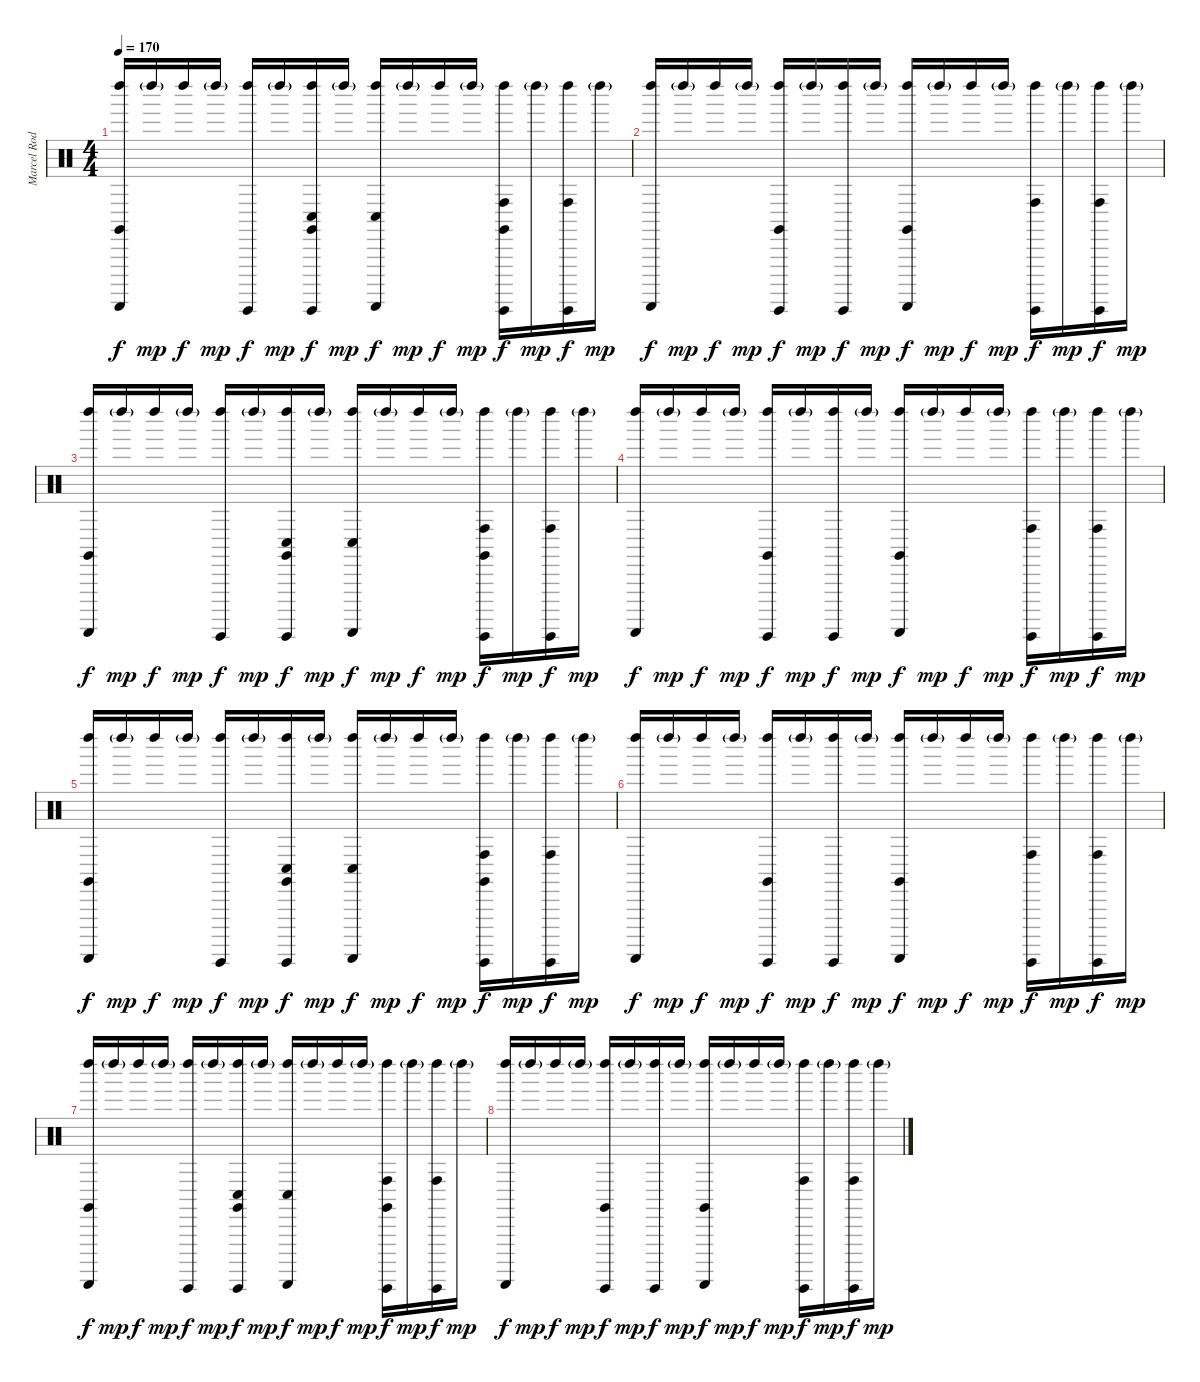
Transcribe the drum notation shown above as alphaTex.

\track ("Marcel Rodriguez-Lopez/Adrian Terrazas [" "Marcel Rod") {instrument percussion}
\staff {score}
\articulation defaults
\ts (4 4)
\tempo 170
\clef neutral
\ks c
("Guiro (scrap-return)" "Left Maraca (hit)" "Claves (hit)").16{dy f} "Left Maraca (hit)"{g}.16{dy mp} "Left Maraca (hit)".16{dy f} "Left Maraca (hit)"{g}.16{dy mp} ("Guiro (hit)" "Left Maraca (hit)").16{dy f} "Left Maraca (hit)"{g}.16{dy mp} ("Guiro (hit)" "Left Maraca (hit)" "Claves (hit)" "Conga low (hit)").16{dy f} "Left Maraca (hit)"{g}.16{dy mp} ("Guiro (scrap-return)" "Left Maraca (hit)" "Conga low (hit)").16{dy f} "Left Maraca (hit)"{g}.16{dy mp} "Left Maraca (hit)".16{dy f} "Left Maraca (hit)"{g}.16{dy mp} ("Guiro (hit)" "Left Maraca (hit)" "Claves (hit)" "Conga high (hit)").16{dy f} "Left Maraca (hit)"{g}.16{dy mp} ("Guiro (hit)" "Left Maraca (hit)" "Conga high (hit)").16{dy f} "Left Maraca (hit)"{g}.16{dy mp} |
("Guiro (scrap-return)" "Left Maraca (hit)").16{dy f} "Left Maraca (hit)"{g}.16{dy mp} "Left Maraca (hit)".16{dy f} "Left Maraca (hit)"{g}.16{dy mp} ("Guiro (hit)" "Left Maraca (hit)" "Claves (hit)").16{dy f} "Left Maraca (hit)"{g}.16{dy mp} ("Guiro (hit)" "Left Maraca (hit)").16{dy f} "Left Maraca (hit)"{g}.16{dy mp} ("Guiro (scrap-return)" "Left Maraca (hit)" "Claves (hit)").16{dy f} "Left Maraca (hit)"{g}.16{dy mp} "Left Maraca (hit)".16{dy f} "Left Maraca (hit)"{g}.16{dy mp} ("Guiro (hit)" "Left Maraca (hit)" "Conga high (hit)").16{dy f} "Left Maraca (hit)"{g}.16{dy mp} ("Guiro (hit)" "Left Maraca (hit)" "Conga high (hit)").16{dy f} "Left Maraca (hit)"{g}.16{dy mp} |
("Guiro (scrap-return)" "Left Maraca (hit)" "Claves (hit)").16{dy f} "Left Maraca (hit)"{g}.16{dy mp} "Left Maraca (hit)".16{dy f} "Left Maraca (hit)"{g}.16{dy mp} ("Guiro (hit)" "Left Maraca (hit)").16{dy f} "Left Maraca (hit)"{g}.16{dy mp} ("Guiro (hit)" "Left Maraca (hit)" "Claves (hit)" "Conga low (hit)").16{dy f} "Left Maraca (hit)"{g}.16{dy mp} ("Guiro (scrap-return)" "Left Maraca (hit)" "Conga low (hit)").16{dy f} "Left Maraca (hit)"{g}.16{dy mp} "Left Maraca (hit)".16{dy f} "Left Maraca (hit)"{g}.16{dy mp} ("Guiro (hit)" "Left Maraca (hit)" "Claves (hit)" "Conga high (hit)").16{dy f} "Left Maraca (hit)"{g}.16{dy mp} ("Guiro (hit)" "Left Maraca (hit)" "Conga high (hit)").16{dy f} "Left Maraca (hit)"{g}.16{dy mp} |
("Guiro (scrap-return)" "Left Maraca (hit)").16{dy f} "Left Maraca (hit)"{g}.16{dy mp} "Left Maraca (hit)".16{dy f} "Left Maraca (hit)"{g}.16{dy mp} ("Guiro (hit)" "Left Maraca (hit)" "Claves (hit)").16{dy f} "Left Maraca (hit)"{g}.16{dy mp} ("Guiro (hit)" "Left Maraca (hit)").16{dy f} "Left Maraca (hit)"{g}.16{dy mp} ("Guiro (scrap-return)" "Left Maraca (hit)" "Claves (hit)").16{dy f} "Left Maraca (hit)"{g}.16{dy mp} "Left Maraca (hit)".16{dy f} "Left Maraca (hit)"{g}.16{dy mp} ("Guiro (hit)" "Left Maraca (hit)" "Conga high (hit)").16{dy f} "Left Maraca (hit)"{g}.16{dy mp} ("Guiro (hit)" "Left Maraca (hit)" "Conga high (hit)").16{dy f} "Left Maraca (hit)"{g}.16{dy mp} |
("Guiro (scrap-return)" "Left Maraca (hit)" "Claves (hit)").16{dy f} "Left Maraca (hit)"{g}.16{dy mp} "Left Maraca (hit)".16{dy f} "Left Maraca (hit)"{g}.16{dy mp} ("Guiro (hit)" "Left Maraca (hit)").16{dy f} "Left Maraca (hit)"{g}.16{dy mp} ("Guiro (hit)" "Left Maraca (hit)" "Claves (hit)" "Conga low (hit)").16{dy f} "Left Maraca (hit)"{g}.16{dy mp} ("Guiro (scrap-return)" "Left Maraca (hit)" "Conga low (hit)").16{dy f} "Left Maraca (hit)"{g}.16{dy mp} "Left Maraca (hit)".16{dy f} "Left Maraca (hit)"{g}.16{dy mp} ("Guiro (hit)" "Left Maraca (hit)" "Claves (hit)" "Conga high (hit)").16{dy f} "Left Maraca (hit)"{g}.16{dy mp} ("Guiro (hit)" "Left Maraca (hit)" "Conga high (hit)").16{dy f} "Left Maraca (hit)"{g}.16{dy mp} |
("Guiro (scrap-return)" "Left Maraca (hit)").16{dy f} "Left Maraca (hit)"{g}.16{dy mp} "Left Maraca (hit)".16{dy f} "Left Maraca (hit)"{g}.16{dy mp} ("Guiro (hit)" "Left Maraca (hit)" "Claves (hit)").16{dy f} "Left Maraca (hit)"{g}.16{dy mp} ("Guiro (hit)" "Left Maraca (hit)").16{dy f} "Left Maraca (hit)"{g}.16{dy mp} ("Guiro (scrap-return)" "Left Maraca (hit)" "Claves (hit)").16{dy f} "Left Maraca (hit)"{g}.16{dy mp} "Left Maraca (hit)".16{dy f} "Left Maraca (hit)"{g}.16{dy mp} ("Guiro (hit)" "Left Maraca (hit)" "Conga high (hit)").16{dy f} "Left Maraca (hit)"{g}.16{dy mp} ("Guiro (hit)" "Left Maraca (hit)" "Conga high (hit)").16{dy f} "Left Maraca (hit)"{g}.16{dy mp} |
("Guiro (scrap-return)" "Left Maraca (hit)" "Claves (hit)").16{dy f} "Left Maraca (hit)"{g}.16{dy mp} "Left Maraca (hit)".16{dy f} "Left Maraca (hit)"{g}.16{dy mp} ("Guiro (hit)" "Left Maraca (hit)").16{dy f} "Left Maraca (hit)"{g}.16{dy mp} ("Guiro (hit)" "Left Maraca (hit)" "Claves (hit)" "Conga low (hit)").16{dy f} "Left Maraca (hit)"{g}.16{dy mp} ("Guiro (scrap-return)" "Left Maraca (hit)" "Conga low (hit)").16{dy f} "Left Maraca (hit)"{g}.16{dy mp} "Left Maraca (hit)".16{dy f} "Left Maraca (hit)"{g}.16{dy mp} ("Guiro (hit)" "Left Maraca (hit)" "Claves (hit)" "Conga high (hit)").16{dy f} "Left Maraca (hit)"{g}.16{dy mp} ("Guiro (hit)" "Left Maraca (hit)" "Conga high (hit)").16{dy f} "Left Maraca (hit)"{g}.16{dy mp} |
("Guiro (scrap-return)" "Left Maraca (hit)").16{dy f} "Left Maraca (hit)"{g}.16{dy mp} "Left Maraca (hit)".16{dy f} "Left Maraca (hit)"{g}.16{dy mp} ("Guiro (hit)" "Left Maraca (hit)" "Claves (hit)").16{dy f} "Left Maraca (hit)"{g}.16{dy mp} ("Guiro (hit)" "Left Maraca (hit)").16{dy f} "Left Maraca (hit)"{g}.16{dy mp} ("Guiro (scrap-return)" "Left Maraca (hit)" "Claves (hit)").16{dy f} "Left Maraca (hit)"{g}.16{dy mp} "Left Maraca (hit)".16{dy f} "Left Maraca (hit)"{g}.16{dy mp} ("Guiro (hit)" "Left Maraca (hit)" "Conga high (hit)").16{dy f} "Left Maraca (hit)"{g}.16{dy mp} ("Guiro (hit)" "Left Maraca (hit)" "Conga high (hit)").16{dy f} "Left Maraca (hit)"{g}.16{dy mp}
